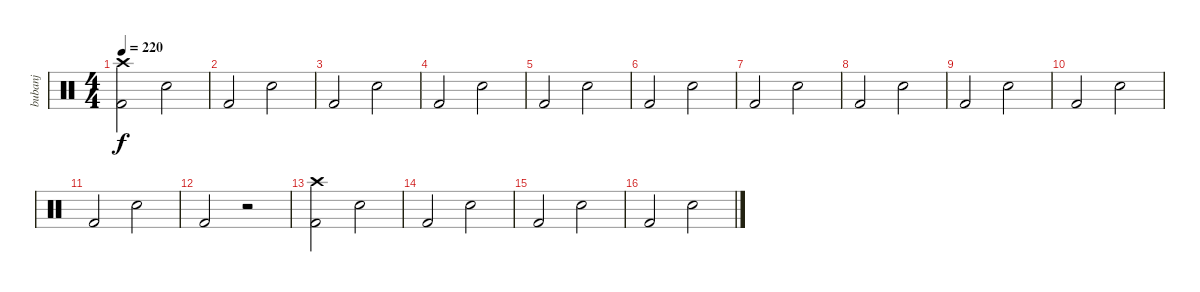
\track ("bubanj" "bubanj") {instrument percussion}
\staff {score}
\articulation defaults
\ts (4 4)
\tempo 220
\clef neutral
\ks c
("Kick (hit) 2" "Crash high (hit)").2{dy f} "Snare (hit) 2".2 |
"Kick (hit) 2".2 "Snare (hit) 2".2 |
"Kick (hit) 2".2 "Snare (hit) 2".2 |
"Kick (hit) 2".2 "Snare (hit) 2".2 |
"Kick (hit) 2".2 "Snare (hit) 2".2 |
"Kick (hit) 2".2 "Snare (hit) 2".2 |
"Kick (hit) 2".2 "Snare (hit) 2".2 |
"Kick (hit) 2".2 "Snare (hit) 2".2 |
"Kick (hit) 2".2 "Snare (hit) 2".2 |
"Kick (hit) 2".2 "Snare (hit) 2".2 |
"Kick (hit) 2".2 "Snare (hit) 2".2 |
"Kick (hit) 2".2 r.2 |
("Kick (hit) 2" "Crash high (hit)").2 "Snare (hit) 2".2 |
"Kick (hit) 2".2 "Snare (hit) 2".2 |
"Kick (hit) 2".2 "Snare (hit) 2".2 |
"Kick (hit) 2".2 "Snare (hit) 2".2
